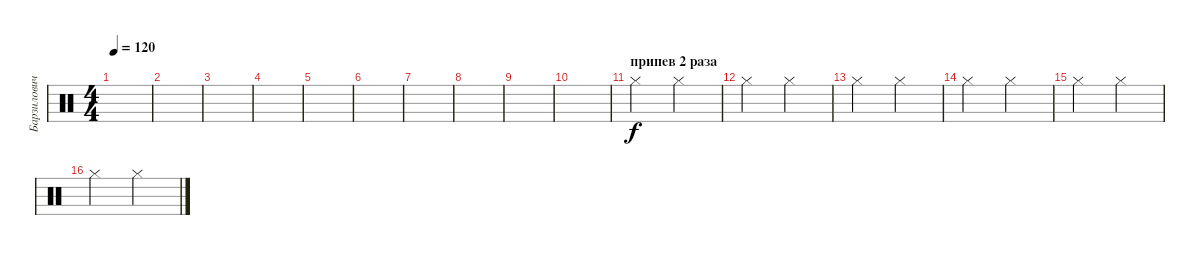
\track ("Барзилович" "Барзилович") {instrument percussion}
\staff {score}
\articulation defaults
\ts (4 4)
\tempo 120
\clef neutral
\ks c
|
|
|
|
|
|
|
|
|
|
\section ("" "припев 2 раза")
"Hi-Hat (closed)".2 "Hi-Hat (closed)".2 |
"Hi-Hat (closed)".2 "Hi-Hat (closed)".2 |
"Hi-Hat (closed)".2 "Hi-Hat (closed)".2 |
"Hi-Hat (closed)".2 "Hi-Hat (closed)".2 |
"Hi-Hat (closed)".2 "Hi-Hat (closed)".2 |
"Hi-Hat (closed)".2 "Hi-Hat (closed)".2
